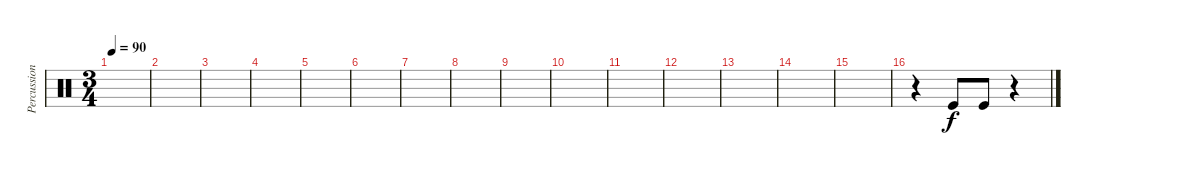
\track ("Percussion" "Percussion") {instrument percussion}
\staff {score}
\articulation defaults
\ts (3 4)
\tempo 90
\clef neutral
\ks c
|
|
|
|
|
|
|
|
|
|
|
|
|
|
|
r.4 "Kick (hit)".8 "Kick (hit)".8 r.4
